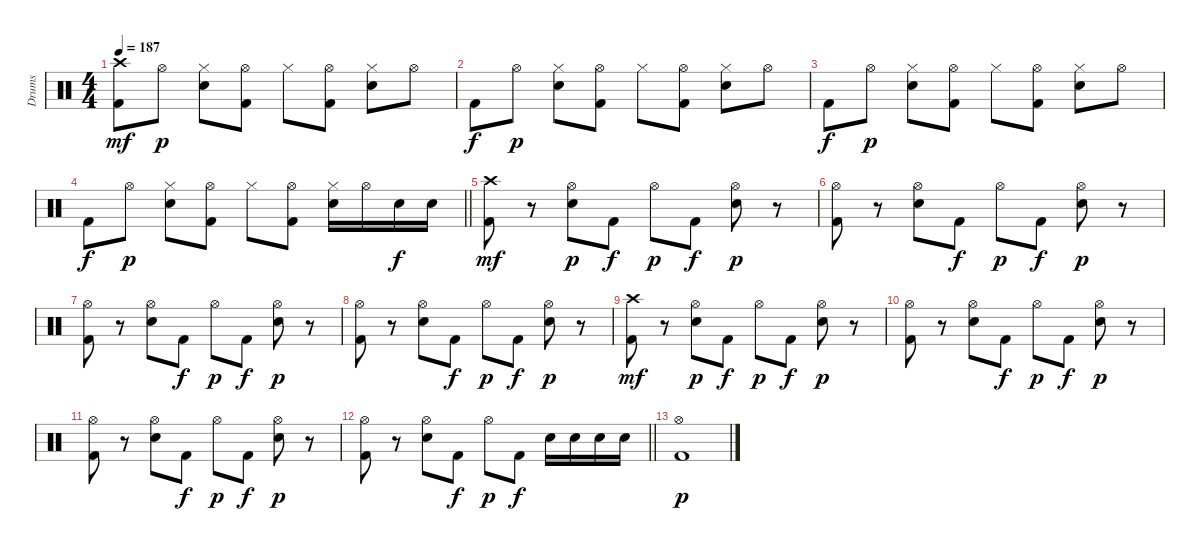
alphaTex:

\track ("Drums" "Drums") {instrument percussion}
\staff {score}
\articulation defaults
\ts (4 4)
\tempo 187
\clef neutral
\ks c
("Crash high (hit)" "Kick (hit) 2").8{dy mf} "Hi-Hat (open)".8{dy p} ("Hi-Hat (closed)" "Electric Snare (hit)").8 ("Hi-Hat (open)" "Kick (hit) 2").8 "Hi-Hat (closed)".8 ("Hi-Hat (open)" "Kick (hit) 2").8 ("Hi-Hat (closed)" "Electric Snare (hit)").8 "Hi-Hat (open)".8 |
"Kick (hit) 2".8{dy f} "Hi-Hat (open)".8{dy p} ("Hi-Hat (closed)" "Electric Snare (hit)").8 ("Hi-Hat (open)" "Kick (hit) 2").8 "Hi-Hat (closed)".8 ("Hi-Hat (open)" "Kick (hit) 2").8 ("Hi-Hat (closed)" "Electric Snare (hit)").8 "Hi-Hat (open)".8 |
"Kick (hit) 2".8{dy f} "Hi-Hat (open)".8{dy p} ("Hi-Hat (closed)" "Electric Snare (hit)").8 ("Hi-Hat (open)" "Kick (hit) 2").8 "Hi-Hat (closed)".8 ("Hi-Hat (open)" "Kick (hit) 2").8 ("Hi-Hat (closed)" "Electric Snare (hit)").8 "Hi-Hat (open)".8 |
\barLineRight lightlight "Kick (hit) 2".8{dy f} "Hi-Hat (open)".8{dy p}
("Hi-Hat (closed)" "Electric Snare (hit)").8 ("Hi-Hat (open)" "Kick (hit) 2").8 "Hi-Hat (closed)".8 ("Hi-Hat (open)" "Kick (hit) 2").8 ("Hi-Hat (closed)" "Electric Snare (hit)").16 "Hi-Hat (open)".16 "Electric Snare (hit)".16{dy f} "Electric Snare (hit)".16 |
("Crash high (hit)" "Kick (hit) 2").8{dy mf} r.8 ("Hi-Hat (open)" "Electric Snare (hit)").8{dy p} "Kick (hit) 2".8{dy f} "Hi-Hat (open)".8{dy p} "Kick (hit) 2".8{dy f} ("Hi-Hat (open)" "Electric Snare (hit)").8{dy p} r.8 |
("Hi-Hat (open)" "Kick (hit) 2").8 r.8 ("Hi-Hat (open)" "Electric Snare (hit)").8 "Kick (hit) 2".8{dy f} "Hi-Hat (open)".8{dy p} "Kick (hit) 2".8{dy f} ("Hi-Hat (open)" "Electric Snare (hit)").8{dy p} r.8 |
("Hi-Hat (open)" "Kick (hit) 2").8 r.8 ("Hi-Hat (open)" "Electric Snare (hit)").8 "Kick (hit) 2".8{dy f} "Hi-Hat (open)".8{dy p} "Kick (hit) 2".8{dy f} ("Hi-Hat (open)" "Electric Snare (hit)").8{dy p} r.8 |
("Hi-Hat (open)" "Kick (hit) 2").8 r.8 ("Hi-Hat (open)" "Electric Snare (hit)").8 "Kick (hit) 2".8{dy f} "Hi-Hat (open)".8{dy p} "Kick (hit) 2".8{dy f} ("Hi-Hat (open)" "Electric Snare (hit)").8{dy p} r.8 |
("Crash high (hit)" "Kick (hit) 2").8{dy mf} r.8 ("Hi-Hat (open)" "Electric Snare (hit)").8{dy p} "Kick (hit) 2".8{dy f} "Hi-Hat (open)".8{dy p} "Kick (hit) 2".8{dy f} ("Hi-Hat (open)" "Electric Snare (hit)").8{dy p} r.8 |
("Hi-Hat (open)" "Kick (hit) 2").8 r.8 ("Hi-Hat (open)" "Electric Snare (hit)").8 "Kick (hit) 2".8{dy f} "Hi-Hat (open)".8{dy p} "Kick (hit) 2".8{dy f} ("Hi-Hat (open)" "Electric Snare (hit)").8{dy p} r.8 |
("Hi-Hat (open)" "Kick (hit) 2").8 r.8 ("Hi-Hat (open)" "Electric Snare (hit)").8 "Kick (hit) 2".8{dy f} "Hi-Hat (open)".8{dy p} "Kick (hit) 2".8{dy f} ("Hi-Hat (open)" "Electric Snare (hit)").8{dy p} r.8 |
\barLineRight lightlight
("Hi-Hat (open)" "Kick (hit) 2").8 r.8 ("Hi-Hat (open)" "Electric Snare (hit)").8 "Kick (hit) 2".8{dy f} "Hi-Hat (open)".8{dy p} "Kick (hit) 2".8{dy f} "Electric Snare (hit)".16 "Electric Snare (hit)".16 "Electric Snare (hit)".16 "Electric Snare (hit)".16 |
("Hi-Hat (open)" "Kick (hit) 2").1{dy p}
